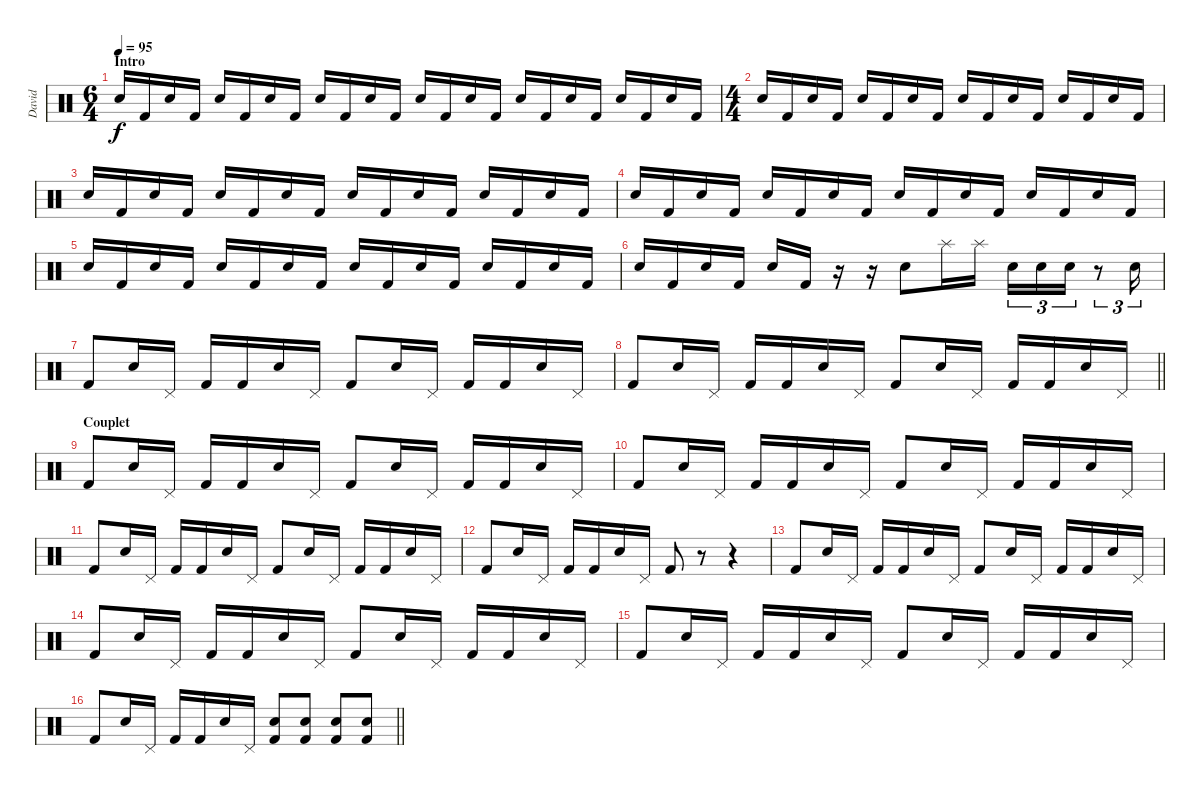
\track ("David" "David") {instrument percussion}
\staff {score}
\articulation defaults
\ts (6 4)
\section ("" "Intro")
\tempo 95
\clef neutral
\ks c "Electric Snare (hit)".16{dy f volume 0} "Kick (hit) 2".16{volume 13} "Electric Snare (hit)".16 "Kick (hit) 2".16 "Electric Snare (hit)".16 "Kick (hit) 2".16 "Electric Snare (hit)".16 "Kick (hit) 2".16 "Electric Snare (hit)".16 "Kick (hit) 2".16 "Electric Snare (hit)".16 "Kick (hit) 2".16 "Electric Snare (hit)".16 "Kick (hit) 2".16 "Electric Snare (hit)".16 "Kick (hit) 2".16 "Electric Snare (hit)".16 "Kick (hit) 2".16 "Electric Snare (hit)".16 "Kick (hit) 2".16 "Electric Snare (hit)".16 "Kick (hit) 2".16 "Electric Snare (hit)".16 "Kick (hit) 2".16
|
\ts (4 4)
"Electric Snare (hit)".16 "Kick (hit) 2".16 "Electric Snare (hit)".16 "Kick (hit) 2".16 "Electric Snare (hit)".16 "Kick (hit) 2".16 "Electric Snare (hit)".16 "Kick (hit) 2".16 "Electric Snare (hit)".16 "Kick (hit) 2".16 "Electric Snare (hit)".16 "Kick (hit) 2".16 "Electric Snare (hit)".16 "Kick (hit) 2".16 "Electric Snare (hit)".16 "Kick (hit) 2".16 |
"Electric Snare (hit)".16 "Kick (hit) 2".16 "Electric Snare (hit)".16 "Kick (hit) 2".16 "Electric Snare (hit)".16 "Kick (hit) 2".16 "Electric Snare (hit)".16 "Kick (hit) 2".16 "Electric Snare (hit)".16 "Kick (hit) 2".16 "Electric Snare (hit)".16 "Kick (hit) 2".16 "Electric Snare (hit)".16 "Kick (hit) 2".16 "Electric Snare (hit)".16 "Kick (hit) 2".16 |
"Electric Snare (hit)".16 "Kick (hit) 2".16 "Electric Snare (hit)".16 "Kick (hit) 2".16 "Electric Snare (hit)".16 "Kick (hit) 2".16 "Electric Snare (hit)".16 "Kick (hit) 2".16 "Electric Snare (hit)".16 "Kick (hit) 2".16 "Electric Snare (hit)".16 "Kick (hit) 2".16 "Electric Snare (hit)".16 "Kick (hit) 2".16 "Electric Snare (hit)".16 "Kick (hit) 2".16 |
"Electric Snare (hit)".16 "Kick (hit) 2".16 "Electric Snare (hit)".16 "Kick (hit) 2".16 "Electric Snare (hit)".16 "Kick (hit) 2".16 "Electric Snare (hit)".16 "Kick (hit) 2".16 "Electric Snare (hit)".16 "Kick (hit) 2".16 "Electric Snare (hit)".16 "Kick (hit) 2".16 "Electric Snare (hit)".16 "Kick (hit) 2".16 "Electric Snare (hit)".16 "Kick (hit) 2".16 |
"Electric Snare (hit)".16 "Kick (hit) 2".16 "Electric Snare (hit)".16 "Kick (hit) 2".16 "Electric Snare (hit)".16 "Kick (hit) 2".16 r.16 r.16 "Electric Snare (hit)".8 "Splash (hit)".16 "Splash (hit)".16 "Electric Snare (hit)".16{tu (3 2)} "Electric Snare (hit)".16{tu (3 2)} "Electric Snare (hit)".16{tu (3 2)} r.8{tu (3 2)} "Electric Snare (hit)".16{tu (3 2)} |
"Kick (hit) 2".8 "Electric Snare (hit)".16 "Pedal Hi-Hat (hit)".16 "Kick (hit) 2".16 "Kick (hit) 2".16 "Electric Snare (hit)".16 "Pedal Hi-Hat (hit)".16 "Kick (hit) 2".8 "Electric Snare (hit)".16 "Pedal Hi-Hat (hit)".16 "Kick (hit) 2".16 "Kick (hit) 2".16 "Electric Snare (hit)".16 "Pedal Hi-Hat (hit)".16 |
\barLineRight lightlight "Kick (hit) 2".8 "Electric Snare (hit)".16 "Pedal Hi-Hat (hit)".16 "Kick (hit) 2".16 "Kick (hit) 2".16 "Electric Snare (hit)".16 "Pedal Hi-Hat (hit)".16 "Kick (hit) 2".8 "Electric Snare (hit)".16 "Pedal Hi-Hat (hit)".16 "Kick (hit) 2".16 "Kick (hit) 2".16 "Electric Snare (hit)".16 "Pedal Hi-Hat (hit)".16
|
\section ("" "Couplet")
"Kick (hit) 2".8 "Electric Snare (hit)".16 "Pedal Hi-Hat (hit)".16 "Kick (hit) 2".16 "Kick (hit) 2".16 "Electric Snare (hit)".16 "Pedal Hi-Hat (hit)".16 "Kick (hit) 2".8 "Electric Snare (hit)".16 "Pedal Hi-Hat (hit)".16 "Kick (hit) 2".16 "Kick (hit) 2".16 "Electric Snare (hit)".16 "Pedal Hi-Hat (hit)".16 |
"Kick (hit) 2".8 "Electric Snare (hit)".16 "Pedal Hi-Hat (hit)".16 "Kick (hit) 2".16 "Kick (hit) 2".16 "Electric Snare (hit)".16 "Pedal Hi-Hat (hit)".16 "Kick (hit) 2".8 "Electric Snare (hit)".16 "Pedal Hi-Hat (hit)".16 "Kick (hit) 2".16 "Kick (hit) 2".16 "Electric Snare (hit)".16 "Pedal Hi-Hat (hit)".16 |
"Kick (hit) 2".8 "Electric Snare (hit)".16 "Pedal Hi-Hat (hit)".16 "Kick (hit) 2".16 "Kick (hit) 2".16 "Electric Snare (hit)".16 "Pedal Hi-Hat (hit)".16 "Kick (hit) 2".8 "Electric Snare (hit)".16 "Pedal Hi-Hat (hit)".16 "Kick (hit) 2".16 "Kick (hit) 2".16 "Electric Snare (hit)".16 "Pedal Hi-Hat (hit)".16 |
"Kick (hit) 2".8 "Electric Snare (hit)".16 "Pedal Hi-Hat (hit)".16 "Kick (hit) 2".16 "Kick (hit) 2".16 "Electric Snare (hit)".16 "Pedal Hi-Hat (hit)".16 "Kick (hit) 2".8 r.8 r.4 |
"Kick (hit) 2".8 "Electric Snare (hit)".16 "Pedal Hi-Hat (hit)".16 "Kick (hit) 2".16 "Kick (hit) 2".16 "Electric Snare (hit)".16 "Pedal Hi-Hat (hit)".16 "Kick (hit) 2".8 "Electric Snare (hit)".16 "Pedal Hi-Hat (hit)".16 "Kick (hit) 2".16 "Kick (hit) 2".16 "Electric Snare (hit)".16 "Pedal Hi-Hat (hit)".16 |
"Kick (hit) 2".8 "Electric Snare (hit)".16 "Pedal Hi-Hat (hit)".16 "Kick (hit) 2".16 "Kick (hit) 2".16 "Electric Snare (hit)".16 "Pedal Hi-Hat (hit)".16 "Kick (hit) 2".8 "Electric Snare (hit)".16 "Pedal Hi-Hat (hit)".16 "Kick (hit) 2".16 "Kick (hit) 2".16 "Electric Snare (hit)".16 "Pedal Hi-Hat (hit)".16 |
"Kick (hit) 2".8 "Electric Snare (hit)".16 "Pedal Hi-Hat (hit)".16 "Kick (hit) 2".16 "Kick (hit) 2".16 "Electric Snare (hit)".16 "Pedal Hi-Hat (hit)".16 "Kick (hit) 2".8 "Electric Snare (hit)".16 "Pedal Hi-Hat (hit)".16 "Kick (hit) 2".16 "Kick (hit) 2".16 "Electric Snare (hit)".16 "Pedal Hi-Hat (hit)".16 |
\barLineRight lightlight "Kick (hit) 2".8 "Electric Snare (hit)".16 "Pedal Hi-Hat (hit)".16 "Kick (hit) 2".16 "Kick (hit) 2".16 "Electric Snare (hit)".16 "Pedal Hi-Hat (hit)".16
("Electric Snare (hit)" "Kick (hit) 2").8 ("Electric Snare (hit)" "Kick (hit) 2").8 ("Electric Snare (hit)" "Kick (hit) 2").8 ("Electric Snare (hit)" "Kick (hit) 2").8
